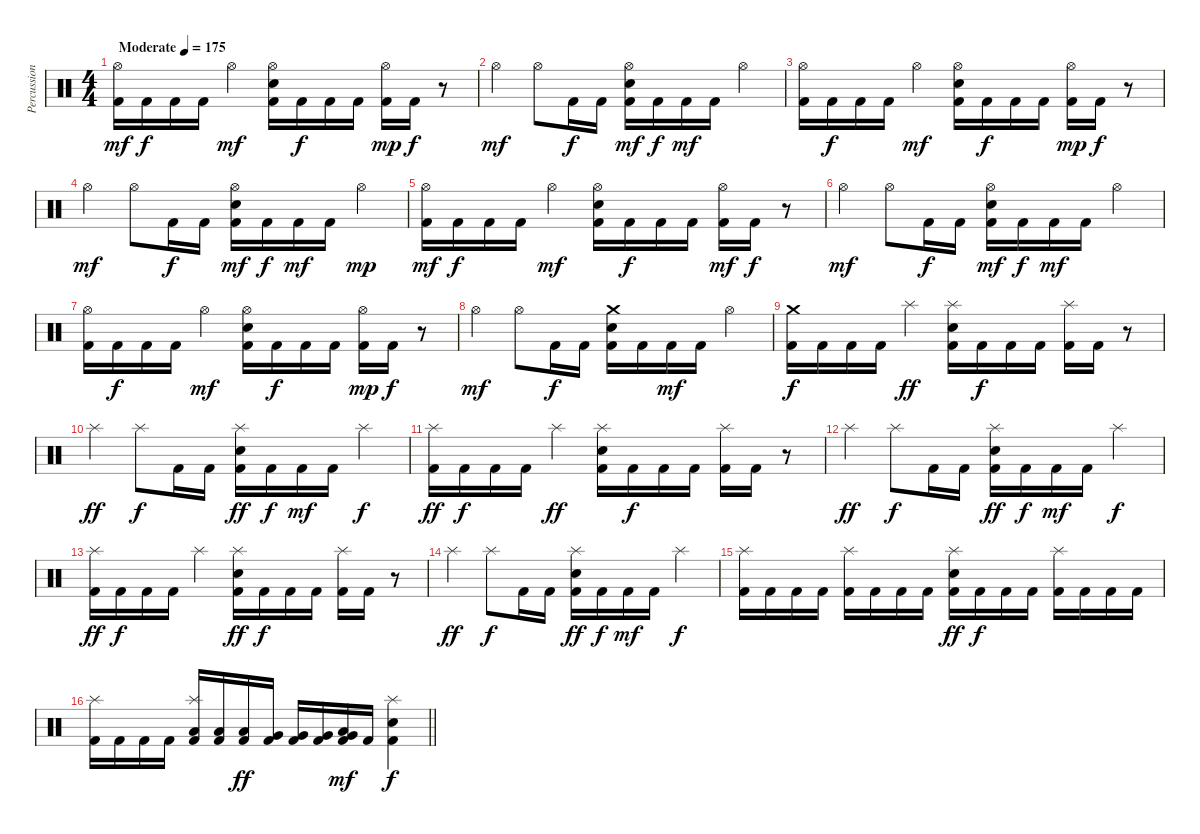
\track ("Percussion" "Percussion") {instrument percussion}
\staff {score}
\articulation defaults
\ts (4 4)
\tempo (175 "Moderate")
\clef neutral
\ks c
("Hi-Hat (open)" "Kick (hit) 2").16{dy mf} "Kick (hit) 2".16{dy f} "Kick (hit) 2".16 "Kick (hit) 2".16 "Hi-Hat (open)".4{dy mf} ("Electric Snare (hit)" "Hi-Hat (open)" "Kick (hit) 2").16 "Kick (hit) 2".16{dy f} "Kick (hit) 2".16 "Kick (hit) 2".16 ("Hi-Hat (open)" "Kick (hit) 2").16{dy mp} "Kick (hit) 2".16{dy f} r.8 |
"Hi-Hat (open)".4{dy mf} "Hi-Hat (open)".8 "Kick (hit) 2".16{dy f} "Kick (hit) 2".16 ("Electric Snare (hit)" "Hi-Hat (open)" "Kick (hit) 2").16{dy mf} "Kick (hit) 2".16{dy f} "Kick (hit) 2".16{dy mf} "Kick (hit) 2".16 "Hi-Hat (open)".4 |
("Hi-Hat (open)" "Kick (hit) 2").16 "Kick (hit) 2".16{dy f} "Kick (hit) 2".16 "Kick (hit) 2".16 "Hi-Hat (open)".4{dy mf} ("Electric Snare (hit)" "Hi-Hat (open)" "Kick (hit) 2").16 "Kick (hit) 2".16{dy f} "Kick (hit) 2".16 "Kick (hit) 2".16 ("Hi-Hat (open)" "Kick (hit) 2").16{dy mp} "Kick (hit) 2".16{dy f} r.8 |
"Hi-Hat (open)".4{dy mf} "Hi-Hat (open)".8 "Kick (hit) 2".16{dy f} "Kick (hit) 2".16 ("Electric Snare (hit)" "Hi-Hat (open)" "Kick (hit) 2").16{dy mf} "Kick (hit) 2".16{dy f} "Kick (hit) 2".16{dy mf} "Kick (hit) 2".16 "Hi-Hat (open)".4{dy mp} |
("Hi-Hat (open)" "Kick (hit) 2").16{dy mf} "Kick (hit) 2".16{dy f} "Kick (hit) 2".16 "Kick (hit) 2".16 "Hi-Hat (open)".4{dy mf} ("Electric Snare (hit)" "Hi-Hat (open)" "Kick (hit) 2").16 "Kick (hit) 2".16{dy f} "Kick (hit) 2".16 "Kick (hit) 2".16 ("Hi-Hat (open)" "Kick (hit) 2").16{dy mf} "Kick (hit) 2".16{dy f} r.8 |
"Hi-Hat (open)".4{dy mf} "Hi-Hat (open)".8 "Kick (hit) 2".16{dy f} "Kick (hit) 2".16 ("Electric Snare (hit)" "Hi-Hat (open)" "Kick (hit) 2").16{dy mf} "Kick (hit) 2".16{dy f} "Kick (hit) 2".16{dy mf} "Kick (hit) 2".16 "Hi-Hat (open)".4 |
("Hi-Hat (open)" "Kick (hit) 2").16 "Kick (hit) 2".16{dy f} "Kick (hit) 2".16 "Kick (hit) 2".16 "Hi-Hat (open)".4{dy mf} ("Electric Snare (hit)" "Hi-Hat (open)" "Kick (hit) 2").16 "Kick (hit) 2".16{dy f} "Kick (hit) 2".16 "Kick (hit) 2".16 ("Hi-Hat (open)" "Kick (hit) 2").16{dy mp} "Kick (hit) 2".16{dy f} r.8 |
"Hi-Hat (open)".4{dy mf} "Hi-Hat (open)".8 "Kick (hit) 2".16{dy f} "Kick (hit) 2".16 ("Electric Snare (hit)" "Crash medium (hit)" "Kick (hit) 2").16 "Kick (hit) 2".16 "Kick (hit) 2".16{dy mf} "Kick (hit) 2".16 "Hi-Hat (open)".4 |
("Crash medium (hit)" "Kick (hit) 2").16{dy f} "Kick (hit) 2".16 "Kick (hit) 2".16 "Kick (hit) 2".16 "Splash (hit)".4{dy ff} ("Electric Snare (hit)" "Splash (hit)" "Kick (hit) 2").16 "Kick (hit) 2".16{dy f} "Kick (hit) 2".16 "Kick (hit) 2".16 ("Splash (hit)" "Kick (hit) 2").16 "Kick (hit) 2".16 r.8 |
"Splash (hit)".4{dy ff} "Splash (hit)".8{dy f} "Kick (hit) 2".16 "Kick (hit) 2".16 ("Electric Snare (hit)" "Splash (hit)" "Kick (hit) 2").16{dy ff} "Kick (hit) 2".16{dy f} "Kick (hit) 2".16{dy mf} "Kick (hit) 2".16 "Splash (hit)".4{dy f} |
("Splash (hit)" "Kick (hit) 2").16{dy ff} "Kick (hit) 2".16{dy f} "Kick (hit) 2".16 "Kick (hit) 2".16 "Splash (hit)".4{dy ff} ("Electric Snare (hit)" "Splash (hit)" "Kick (hit) 2").16 "Kick (hit) 2".16{dy f} "Kick (hit) 2".16 "Kick (hit) 2".16 ("Splash (hit)" "Kick (hit) 2").16 "Kick (hit) 2".16 r.8 |
"Splash (hit)".4{dy ff} "Splash (hit)".8{dy f} "Kick (hit) 2".16 "Kick (hit) 2".16 ("Electric Snare (hit)" "Splash (hit)" "Kick (hit) 2").16{dy ff} "Kick (hit) 2".16{dy f} "Kick (hit) 2".16{dy mf} "Kick (hit) 2".16 "Splash (hit)".4{dy f} |
("Splash (hit)" "Kick (hit) 2").16{dy ff} "Kick (hit) 2".16{dy f} "Kick (hit) 2".16 "Kick (hit) 2".16 "Splash (hit)".4 ("Electric Snare (hit)" "Splash (hit)" "Kick (hit) 2").16{dy ff} "Kick (hit) 2".16{dy f} "Kick (hit) 2".16 "Kick (hit) 2".16 ("Splash (hit)" "Kick (hit) 2").16 "Kick (hit) 2".16 r.8 |
"Splash (hit)".4{dy ff} "Splash (hit)".8{dy f} "Kick (hit) 2".16 "Kick (hit) 2".16 ("Electric Snare (hit)" "Splash (hit)" "Kick (hit) 2").16{dy ff} "Kick (hit) 2".16{dy f} "Kick (hit) 2".16{dy mf} "Kick (hit) 2".16 "Splash (hit)".4{dy f} |
("Splash (hit)" "Kick (hit) 2").16 "Kick (hit) 2".16 "Kick (hit) 2".16 "Kick (hit) 2".16 ("Splash (hit)" "Kick (hit) 2").16 "Kick (hit) 2".16 "Kick (hit) 2".16 "Kick (hit) 2".16 ("Electric Snare (hit)" "Splash (hit)" "Kick (hit) 2").16{dy ff} "Kick (hit) 2".16{dy f} "Kick (hit) 2".16 "Kick (hit) 2".16 ("Splash (hit)" "Kick (hit) 2").16 "Kick (hit) 2".16 "Kick (hit) 2".16 "Kick (hit) 2".16 |
\barLineRight lightlight
("Splash (hit)" "Kick (hit) 2").16 "Kick (hit) 2".16 "Kick (hit) 2".16 "Kick (hit) 2".16 ("Low Tom (hit)" "Splash (hit)" "Kick (hit) 2").16 ("Low Tom (hit)" "Kick (hit) 2").16 ("Low Tom (hit)" "Kick (hit) 2").16{dy ff} ("Very Low Tom (hit)" "Kick (hit) 2").16 ("Very Low Tom (hit)" "Kick (hit) 2").16 ("Very Low Tom (hit)" "Kick (hit) 2").16 ("Very Low Tom (hit)" "Low Floor Tom (hit)" "Kick (hit) 2").16{dy mf} "Kick (hit) 2".16 ("Electric Snare (hit)" "Splash (hit)" "Kick (hit) 2").4{dy f}
